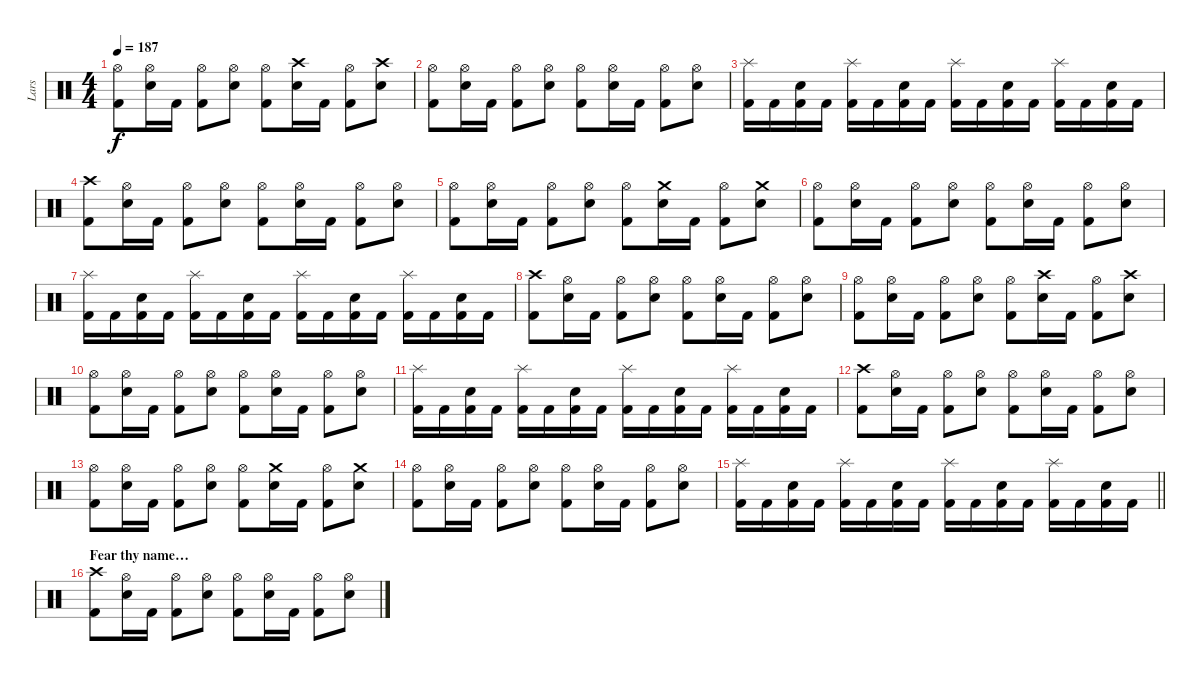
\track ("Lars" "Lars") {instrument percussion}
\staff {score}
\articulation defaults
\ts (4 4)
\tempo 187
\clef neutral
\ks c
("Hi-Hat (open)" "Kick (hit) 2").8{dy f} ("Hi-Hat (open)" "Snare (hit) 2").16 "Kick (hit) 2".16 ("Hi-Hat (open)" "Kick (hit) 2").8 ("Hi-Hat (open)" "Snare (hit) 2").8 ("Hi-Hat (open)" "Kick (hit) 2").8 ("Crash high (hit)" "Snare (hit) 2").16 "Kick (hit) 2".16 ("Hi-Hat (open)" "Kick (hit) 2").8 ("Crash high (hit)" "Snare (hit) 2").8 |
("Hi-Hat (open)" "Kick (hit) 2").8 ("Hi-Hat (open)" "Snare (hit) 2").16 "Kick (hit) 2".16 ("Hi-Hat (open)" "Kick (hit) 2").8 ("Hi-Hat (open)" "Snare (hit) 2").8 ("Hi-Hat (open)" "Kick (hit) 2").8 ("Hi-Hat (open)" "Snare (hit) 2").16 "Kick (hit) 2".16 ("Hi-Hat (open)" "Kick (hit) 2").8 ("Hi-Hat (open)" "Snare (hit) 2").8 |
("Splash (hit)" "Kick (hit) 2").16 "Kick (hit) 2".16 ("Snare (hit) 2" "Kick (hit) 2").16 "Kick (hit) 2".16 ("Splash (hit)" "Kick (hit) 2").16 "Kick (hit) 2".16 ("Snare (hit) 2" "Kick (hit) 2").16 "Kick (hit) 2".16 ("Splash (hit)" "Kick (hit) 2").16 "Kick (hit) 2".16 ("Snare (hit) 2" "Kick (hit) 2").16 "Kick (hit) 2".16 ("Splash (hit)" "Kick (hit) 2").16 "Kick (hit) 2".16 ("Snare (hit) 2" "Kick (hit) 2").16 "Kick (hit) 2".16 |
("Crash high (hit)" "Kick (hit) 2").8 ("Hi-Hat (open)" "Snare (hit) 2").16 "Kick (hit) 2".16 ("Hi-Hat (open)" "Kick (hit) 2").8 ("Hi-Hat (open)" "Snare (hit) 2").8 ("Hi-Hat (open)" "Kick (hit) 2").8 ("Hi-Hat (open)" "Snare (hit) 2").16 "Kick (hit) 2".16 ("Hi-Hat (open)" "Kick (hit) 2").8 ("Hi-Hat (open)" "Snare (hit) 2").8 |
("Hi-Hat (open)" "Kick (hit) 2").8 ("Hi-Hat (open)" "Snare (hit) 2").16 "Kick (hit) 2".16 ("Hi-Hat (open)" "Kick (hit) 2").8 ("Hi-Hat (open)" "Snare (hit) 2").8 ("Hi-Hat (open)" "Kick (hit) 2").8 ("Crash medium (hit)" "Snare (hit) 2").16 "Kick (hit) 2".16 ("Hi-Hat (open)" "Kick (hit) 2").8 ("Crash medium (hit)" "Snare (hit) 2").8 |
("Hi-Hat (open)" "Kick (hit) 2").8 ("Hi-Hat (open)" "Snare (hit) 2").16 "Kick (hit) 2".16 ("Hi-Hat (open)" "Kick (hit) 2").8 ("Hi-Hat (open)" "Snare (hit) 2").8 ("Hi-Hat (open)" "Kick (hit) 2").8 ("Hi-Hat (open)" "Snare (hit) 2").16 "Kick (hit) 2".16 ("Hi-Hat (open)" "Kick (hit) 2").8 ("Hi-Hat (open)" "Snare (hit) 2").8 |
("Splash (hit)" "Kick (hit) 2").16 "Kick (hit) 2".16 ("Snare (hit) 2" "Kick (hit) 2").16 "Kick (hit) 2".16 ("Splash (hit)" "Kick (hit) 2").16 "Kick (hit) 2".16 ("Snare (hit) 2" "Kick (hit) 2").16 "Kick (hit) 2".16 ("Splash (hit)" "Kick (hit) 2").16 "Kick (hit) 2".16 ("Snare (hit) 2" "Kick (hit) 2").16 "Kick (hit) 2".16 ("Splash (hit)" "Kick (hit) 2").16 "Kick (hit) 2".16 ("Snare (hit) 2" "Kick (hit) 2").16 "Kick (hit) 2".16 |
("Crash high (hit)" "Kick (hit) 2").8 ("Hi-Hat (open)" "Snare (hit) 2").16 "Kick (hit) 2".16 ("Hi-Hat (open)" "Kick (hit) 2").8 ("Hi-Hat (open)" "Snare (hit) 2").8 ("Hi-Hat (open)" "Kick (hit) 2").8 ("Hi-Hat (open)" "Snare (hit) 2").16 "Kick (hit) 2".16 ("Hi-Hat (open)" "Kick (hit) 2").8 ("Hi-Hat (open)" "Snare (hit) 2").8 |
("Hi-Hat (open)" "Kick (hit) 2").8 ("Hi-Hat (open)" "Snare (hit) 2").16 "Kick (hit) 2".16 ("Hi-Hat (open)" "Kick (hit) 2").8 ("Hi-Hat (open)" "Snare (hit) 2").8 ("Hi-Hat (open)" "Kick (hit) 2").8 ("Crash high (hit)" "Snare (hit) 2").16 "Kick (hit) 2".16 ("Hi-Hat (open)" "Kick (hit) 2").8 ("Crash high (hit)" "Snare (hit) 2").8 |
("Hi-Hat (open)" "Kick (hit) 2").8 ("Hi-Hat (open)" "Snare (hit) 2").16 "Kick (hit) 2".16 ("Hi-Hat (open)" "Kick (hit) 2").8 ("Hi-Hat (open)" "Snare (hit) 2").8 ("Hi-Hat (open)" "Kick (hit) 2").8 ("Hi-Hat (open)" "Snare (hit) 2").16 "Kick (hit) 2".16 ("Hi-Hat (open)" "Kick (hit) 2").8 ("Hi-Hat (open)" "Snare (hit) 2").8 |
("Splash (hit)" "Kick (hit) 2").16 "Kick (hit) 2".16 ("Snare (hit) 2" "Kick (hit) 2").16 "Kick (hit) 2".16 ("Splash (hit)" "Kick (hit) 2").16 "Kick (hit) 2".16 ("Snare (hit) 2" "Kick (hit) 2").16 "Kick (hit) 2".16 ("Splash (hit)" "Kick (hit) 2").16 "Kick (hit) 2".16 ("Snare (hit) 2" "Kick (hit) 2").16 "Kick (hit) 2".16 ("Splash (hit)" "Kick (hit) 2").16 "Kick (hit) 2".16 ("Snare (hit) 2" "Kick (hit) 2").16 "Kick (hit) 2".16 |
("Crash high (hit)" "Kick (hit) 2").8 ("Hi-Hat (open)" "Snare (hit) 2").16 "Kick (hit) 2".16 ("Hi-Hat (open)" "Kick (hit) 2").8 ("Hi-Hat (open)" "Snare (hit) 2").8 ("Hi-Hat (open)" "Kick (hit) 2").8 ("Hi-Hat (open)" "Snare (hit) 2").16 "Kick (hit) 2".16 ("Hi-Hat (open)" "Kick (hit) 2").8 ("Hi-Hat (open)" "Snare (hit) 2").8 |
("Hi-Hat (open)" "Kick (hit) 2").8 ("Hi-Hat (open)" "Snare (hit) 2").16 "Kick (hit) 2".16 ("Hi-Hat (open)" "Kick (hit) 2").8 ("Hi-Hat (open)" "Snare (hit) 2").8 ("Hi-Hat (open)" "Kick (hit) 2").8 ("Crash medium (hit)" "Snare (hit) 2").16 "Kick (hit) 2".16 ("Hi-Hat (open)" "Kick (hit) 2").8 ("Crash medium (hit)" "Snare (hit) 2").8 |
("Hi-Hat (open)" "Kick (hit) 2").8 ("Hi-Hat (open)" "Snare (hit) 2").16 "Kick (hit) 2".16 ("Hi-Hat (open)" "Kick (hit) 2").8 ("Hi-Hat (open)" "Snare (hit) 2").8 ("Hi-Hat (open)" "Kick (hit) 2").8 ("Hi-Hat (open)" "Snare (hit) 2").16 "Kick (hit) 2".16 ("Hi-Hat (open)" "Kick (hit) 2").8 ("Hi-Hat (open)" "Snare (hit) 2").8 |
\barLineRight lightlight
("Splash (hit)" "Kick (hit) 2").16 "Kick (hit) 2".16 ("Snare (hit) 2" "Kick (hit) 2").16 "Kick (hit) 2".16 ("Splash (hit)" "Kick (hit) 2").16 "Kick (hit) 2".16 ("Snare (hit) 2" "Kick (hit) 2").16 "Kick (hit) 2".16 ("Splash (hit)" "Kick (hit) 2").16 "Kick (hit) 2".16 ("Snare (hit) 2" "Kick (hit) 2").16 "Kick (hit) 2".16 ("Splash (hit)" "Kick (hit) 2").16 "Kick (hit) 2".16 ("Snare (hit) 2" "Kick (hit) 2").16 "Kick (hit) 2".16 |
\section ("" "Fear thy name…")
("Crash high (hit)" "Kick (hit) 2").8 ("Hi-Hat (open)" "Snare (hit) 2").16 "Kick (hit) 2".16 ("Hi-Hat (open)" "Kick (hit) 2").8 ("Hi-Hat (open)" "Snare (hit) 2").8 ("Hi-Hat (open)" "Kick (hit) 2").8 ("Hi-Hat (open)" "Snare (hit) 2").16 "Kick (hit) 2".16 ("Hi-Hat (open)" "Kick (hit) 2").8 ("Hi-Hat (open)" "Snare (hit) 2").8
